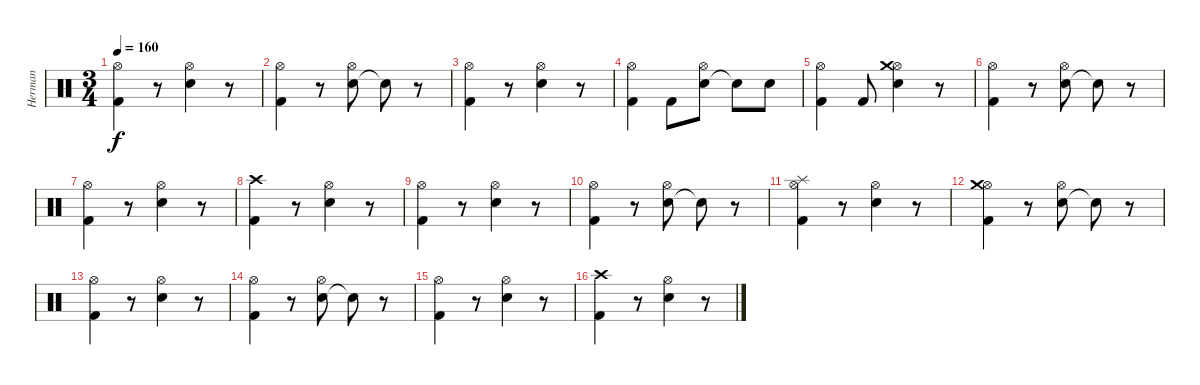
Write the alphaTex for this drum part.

\track ("Herman" "Herman") {instrument percussion}
\staff {score}
\articulation defaults
\ts (3 4)
\tempo 160
\clef neutral
\ks c
("Kick (hit) 2" "Hi-Hat (open)").4{dy f} r.8 ("Electric Snare (hit)" "Hi-Hat (open)").4 r.8 |
("Kick (hit) 2" "Hi-Hat (open)").4 r.8 ("Electric Snare (hit)" "Hi-Hat (open)").8 "Snare (hit)"{t}.8 r.8 |
("Kick (hit) 2" "Hi-Hat (open)").4 r.8 ("Electric Snare (hit)" "Hi-Hat (open)").4 r.8 |
("Kick (hit) 2" "Hi-Hat (open)").4 "Kick (hit) 2".8 ("Electric Snare (hit)" "Hi-Hat (open)").8 "Snare (hit)"{t}.8 "Electric Snare (hit)".8 |
("Kick (hit) 2" "Hi-Hat (open)").4 "Kick (hit) 2".8 ("Electric Snare (hit)" "Hi-Hat (open)" "Crash medium (hit)").4 r.8 |
("Kick (hit) 2" "Hi-Hat (open)").4 r.8 ("Electric Snare (hit)" "Hi-Hat (open)").8 "Snare (hit)"{t}.8 r.8 |
("Kick (hit) 2" "Hi-Hat (open)").4 r.8 ("Electric Snare (hit)" "Hi-Hat (open)").4 r.8 |
("Kick (hit) 2" "Crash high (hit)").4 r.8 ("Electric Snare (hit)" "Hi-Hat (open)").4 r.8 |
("Kick (hit) 2" "Hi-Hat (open)").4 r.8 ("Electric Snare (hit)" "Hi-Hat (open)").4 r.8 |
("Kick (hit) 2" "Hi-Hat (open)").4 r.8 ("Electric Snare (hit)" "Hi-Hat (open)").8 "Snare (hit)"{t}.8 r.8 |
("Kick (hit) 2" "Hi-Hat (open)" "Splash (hit)").4 r.8 ("Electric Snare (hit)" "Hi-Hat (open)").4 r.8 |
("Kick (hit) 2" "Hi-Hat (open)" "Crash medium (hit)").4 r.8 ("Electric Snare (hit)" "Hi-Hat (open)").8 "Snare (hit)"{t}.8 r.8 |
("Kick (hit) 2" "Hi-Hat (open)").4 r.8 ("Electric Snare (hit)" "Hi-Hat (open)").4 r.8 |
("Kick (hit) 2" "Hi-Hat (open)").4 r.8 ("Electric Snare (hit)" "Hi-Hat (open)").8 "Snare (hit)"{t}.8 r.8 |
("Kick (hit) 2" "Hi-Hat (open)").4 r.8 ("Electric Snare (hit)" "Hi-Hat (open)").4 r.8 |
("Kick (hit) 2" "Crash high (hit)").4 r.8 ("Electric Snare (hit)" "Hi-Hat (open)").4 r.8
